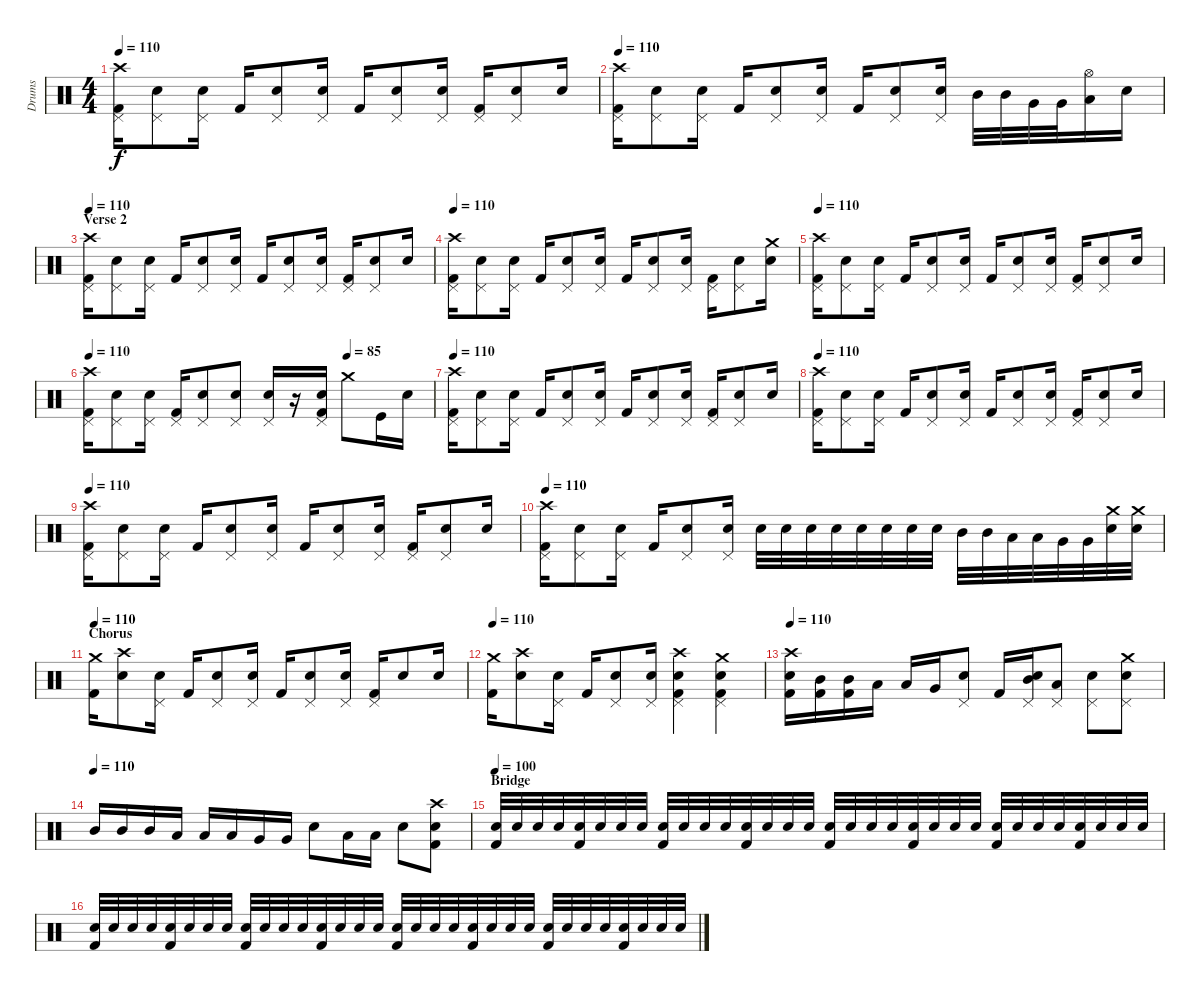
\track ("Drums" "Drums") {instrument percussion}
\staff {score}
\articulation defaults
\ts (4 4)
\tempo 110
\clef neutral
\ks c
("Crash high (hit)" "Kick (hit) 2" "Pedal Hi-Hat (hit)").16{dy f volume 13} ("Electric Snare (hit)" "Pedal Hi-Hat (hit)").8 ("Electric Snare (hit)" "Pedal Hi-Hat (hit)").16 "Kick (hit) 2".16 ("Electric Snare (hit)" "Pedal Hi-Hat (hit)").8 ("Electric Snare (hit)" "Pedal Hi-Hat (hit)").16 "Kick (hit) 2".16 ("Electric Snare (hit)" "Pedal Hi-Hat (hit)").8 ("Electric Snare (hit)" "Pedal Hi-Hat (hit)").16 ("Kick (hit) 2" "Pedal Hi-Hat (hit)").16 ("Electric Snare (hit)" "Pedal Hi-Hat (hit)").8 "Electric Snare (hit)".16 |
\tempo 110
("Crash high (hit)" "Kick (hit) 2" "Pedal Hi-Hat (hit)").16{volume 13} ("Electric Snare (hit)" "Pedal Hi-Hat (hit)").8 ("Electric Snare (hit)" "Pedal Hi-Hat (hit)").16 "Kick (hit) 2".16 ("Electric Snare (hit)" "Pedal Hi-Hat (hit)").8 ("Electric Snare (hit)" "Pedal Hi-Hat (hit)").16 "Kick (hit) 2".16 ("Electric Snare (hit)" "Pedal Hi-Hat (hit)").8 ("Electric Snare (hit)" "Pedal Hi-Hat (hit)").16 "Mid Tom (hit)".32 "Mid Tom (hit)".32 "Very Low Tom (hit)".32 "Very Low Tom (hit)".32 ("Low Tom (hit)" "Hi-Hat (open)").16 "Electric Snare (hit)".16 |
\section ("" "Verse 2")
\tempo 110
("Crash high (hit)" "Kick (hit) 2" "Pedal Hi-Hat (hit)").16{volume 13} ("Electric Snare (hit)" "Pedal Hi-Hat (hit)").8 ("Electric Snare (hit)" "Pedal Hi-Hat (hit)").16 "Kick (hit) 2".16 ("Electric Snare (hit)" "Pedal Hi-Hat (hit)").8 ("Electric Snare (hit)" "Pedal Hi-Hat (hit)").16 "Kick (hit) 2".16 ("Electric Snare (hit)" "Pedal Hi-Hat (hit)").8 ("Electric Snare (hit)" "Pedal Hi-Hat (hit)").16 ("Kick (hit) 2" "Pedal Hi-Hat (hit)").16 ("Electric Snare (hit)" "Pedal Hi-Hat (hit)").8 "Electric Snare (hit)".16 |
\tempo 110
("Crash high (hit)" "Kick (hit) 2" "Pedal Hi-Hat (hit)").16{volume 13} ("Electric Snare (hit)" "Pedal Hi-Hat (hit)").8 ("Electric Snare (hit)" "Pedal Hi-Hat (hit)").16 "Kick (hit) 2".16 ("Electric Snare (hit)" "Pedal Hi-Hat (hit)").8 ("Electric Snare (hit)" "Pedal Hi-Hat (hit)").16 "Kick (hit) 2".16 ("Electric Snare (hit)" "Pedal Hi-Hat (hit)").8 ("Electric Snare (hit)" "Pedal Hi-Hat (hit)").16 ("Kick (hit) 2" "Pedal Hi-Hat (hit)").16 ("Electric Snare (hit)" "Pedal Hi-Hat (hit)").8 ("Electric Snare (hit)" "Crash medium (hit)").16 |
\tempo 110
("Crash high (hit)" "Kick (hit) 2" "Pedal Hi-Hat (hit)").16{volume 13} ("Electric Snare (hit)" "Pedal Hi-Hat (hit)").8 ("Electric Snare (hit)" "Pedal Hi-Hat (hit)").16 "Kick (hit) 2".16 ("Electric Snare (hit)" "Pedal Hi-Hat (hit)").8 ("Electric Snare (hit)" "Pedal Hi-Hat (hit)").16 "Kick (hit) 2".16 ("Electric Snare (hit)" "Pedal Hi-Hat (hit)").8 ("Electric Snare (hit)" "Pedal Hi-Hat (hit)").16 ("Kick (hit) 2" "Pedal Hi-Hat (hit)").16 ("Electric Snare (hit)" "Pedal Hi-Hat (hit)").8 "Electric Snare (hit)".16 |
\tempo 110
\tempo (85 0.75)
("Crash high (hit)" "Kick (hit) 2" "Pedal Hi-Hat (hit)").16 ("Electric Snare (hit)" "Pedal Hi-Hat (hit)").8 ("Electric Snare (hit)" "Pedal Hi-Hat (hit)").16 ("Kick (hit) 2" "Pedal Hi-Hat (hit)").16 ("Electric Snare (hit)" "Pedal Hi-Hat (hit)").8 ("Electric Snare (hit)" "Pedal Hi-Hat (hit)").8 ("Electric Snare (hit)" "Pedal Hi-Hat (hit)").16 r.16 ("Electric Snare (hit)" "Kick (hit) 2" "Pedal Hi-Hat (hit)").16 "Crash medium (hit)".8 "Kick (hit)".16 "Electric Snare (hit)".16 |
\tempo 110
("Crash high (hit)" "Kick (hit) 2" "Pedal Hi-Hat (hit)").16{volume 13} ("Electric Snare (hit)" "Pedal Hi-Hat (hit)").8 ("Electric Snare (hit)" "Pedal Hi-Hat (hit)").16 "Kick (hit) 2".16 ("Electric Snare (hit)" "Pedal Hi-Hat (hit)").8 ("Electric Snare (hit)" "Pedal Hi-Hat (hit)").16 "Kick (hit) 2".16 ("Electric Snare (hit)" "Pedal Hi-Hat (hit)").8 ("Electric Snare (hit)" "Pedal Hi-Hat (hit)").16 ("Kick (hit) 2" "Pedal Hi-Hat (hit)").16 ("Electric Snare (hit)" "Pedal Hi-Hat (hit)").8 "Electric Snare (hit)".16 |
\tempo 110
("Crash high (hit)" "Kick (hit) 2" "Pedal Hi-Hat (hit)").16{volume 13} ("Electric Snare (hit)" "Pedal Hi-Hat (hit)").8 ("Electric Snare (hit)" "Pedal Hi-Hat (hit)").16 "Kick (hit) 2".16 ("Electric Snare (hit)" "Pedal Hi-Hat (hit)").8 ("Electric Snare (hit)" "Pedal Hi-Hat (hit)").16 "Kick (hit) 2".16 ("Electric Snare (hit)" "Pedal Hi-Hat (hit)").8 ("Electric Snare (hit)" "Pedal Hi-Hat (hit)").16 ("Kick (hit) 2" "Pedal Hi-Hat (hit)").16 ("Electric Snare (hit)" "Pedal Hi-Hat (hit)").8 "Electric Snare (hit)".16 |
\tempo 110
("Crash high (hit)" "Kick (hit) 2" "Pedal Hi-Hat (hit)").16{volume 13} ("Electric Snare (hit)" "Pedal Hi-Hat (hit)").8 ("Electric Snare (hit)" "Pedal Hi-Hat (hit)").16 "Kick (hit) 2".16 ("Electric Snare (hit)" "Pedal Hi-Hat (hit)").8 ("Electric Snare (hit)" "Pedal Hi-Hat (hit)").16 "Kick (hit) 2".16 ("Electric Snare (hit)" "Pedal Hi-Hat (hit)").8 ("Electric Snare (hit)" "Pedal Hi-Hat (hit)").16 ("Kick (hit) 2" "Pedal Hi-Hat (hit)").16 ("Electric Snare (hit)" "Pedal Hi-Hat (hit)").8 "Electric Snare (hit)".16 |
\tempo 110
("Crash high (hit)" "Kick (hit) 2" "Pedal Hi-Hat (hit)").16{volume 13} ("Electric Snare (hit)" "Pedal Hi-Hat (hit)").8 ("Electric Snare (hit)" "Pedal Hi-Hat (hit)").16 "Kick (hit) 2".16 ("Electric Snare (hit)" "Pedal Hi-Hat (hit)").8 ("Electric Snare (hit)" "Pedal Hi-Hat (hit)").16 "Electric Snare (hit)".32 "Electric Snare (hit)".32{volume 8} "Electric Snare (hit)".32 "Electric Snare (hit)".32 "Electric Snare (hit)".32{volume 13} "Electric Snare (hit)".32{volume 8} "Electric Snare (hit)".32 "Electric Snare (hit)".32 "Mid Tom (hit)".32{volume 13} "Mid Tom (hit)".32{volume 8} "Low Tom (hit)".32 "Low Tom (hit)".32 "Very Low Tom (hit)".32{volume 13} "Very Low Tom (hit)".32{volume 8} ("Crash medium (hit)" "Electric Snare (hit)").32 ("Crash medium (hit)" "Electric Snare (hit)").32 |
\section ("" "Chorus")
\tempo 110
("Kick (hit) 2" "Crash medium (hit)").16{volume 13} ("Electric Snare (hit)" "Crash high (hit)").8 ("Electric Snare (hit)" "Pedal Hi-Hat (hit)").16 "Kick (hit) 2".16 ("Electric Snare (hit)" "Pedal Hi-Hat (hit)").8 ("Electric Snare (hit)" "Pedal Hi-Hat (hit)").16 "Kick (hit) 2".16 ("Electric Snare (hit)" "Pedal Hi-Hat (hit)").8 ("Electric Snare (hit)" "Pedal Hi-Hat (hit)").16 ("Kick (hit) 2" "Pedal Hi-Hat (hit)").16 "Electric Snare (hit)".8 "Electric Snare (hit)".16 |
\tempo 110
("Kick (hit) 2" "Crash medium (hit)").16{volume 13} ("Electric Snare (hit)" "Crash high (hit)").8 ("Electric Snare (hit)" "Pedal Hi-Hat (hit)").16 "Kick (hit) 2".16 ("Electric Snare (hit)" "Pedal Hi-Hat (hit)").8 ("Electric Snare (hit)" "Pedal Hi-Hat (hit)").16 ("Electric Snare (hit)" "Kick (hit) 2" "Pedal Hi-Hat (hit)" "Crash high (hit)").4 ("Electric Snare (hit)" "Kick (hit) 2" "Pedal Hi-Hat (hit)" "Crash medium (hit)").4 |
\tempo 110
("Crash high (hit)" "Kick (hit) 2" "Electric Snare (hit)").16{volume 13} ("Mid Tom (hit)" "Kick (hit) 2").16 ("Mid Tom (hit)" "Kick (hit) 2").16 "Low Tom (hit)".16 "Low Tom (hit)".16 "Very Low Tom (hit)".16 ("Electric Snare (hit)" "Pedal Hi-Hat (hit)").8 "Kick (hit) 2".16 ("Electric Snare (hit)" "Mid Tom (hit)" "Pedal Hi-Hat (hit)").16 ("Low Tom (hit)" "Pedal Hi-Hat (hit)").8 ("Electric Snare (hit)" "Pedal Hi-Hat (hit)").8 ("Electric Snare (hit)" "Pedal Hi-Hat (hit)" "Crash medium (hit)").8 |
\tempo (110)
"Mid Tom (hit)".16{volume 13} "Mid Tom (hit)".16 "Mid Tom (hit)".16 "Low Tom (hit)".16 "Low Tom (hit)".16 "Low Tom (hit)".16 "Very Low Tom (hit)".16 "Very Low Tom (hit)".16 "Electric Snare (hit)".8 "Low Tom (hit)".16 "Low Tom (hit)".16 "Electric Snare (hit)".8 ("Crash high (hit)" "Kick (hit) 2" "Electric Snare (hit)").8 |
\section ("" "Bridge")
\tempo 100
("Electric Snare (hit)" "Kick (hit) 2").32 "Electric Snare (hit)".32{volume 8} "Electric Snare (hit)".32 "Electric Snare (hit)".32 ("Electric Snare (hit)" "Kick (hit) 2").32{volume 11} "Electric Snare (hit)".32{volume 8} "Electric Snare (hit)".32 "Electric Snare (hit)".32 ("Electric Snare (hit)" "Kick (hit) 2").32{volume 12} "Electric Snare (hit)".32{volume 8} "Electric Snare (hit)".32 "Electric Snare (hit)".32 ("Electric Snare (hit)" "Kick (hit) 2").32{volume 12} "Electric Snare (hit)".32{volume 8} "Electric Snare (hit)".32 "Electric Snare (hit)".32 ("Electric Snare (hit)" "Kick (hit) 2").32{volume 12} "Electric Snare (hit)".32{volume 8} "Electric Snare (hit)".32 "Electric Snare (hit)".32 ("Electric Snare (hit)" "Kick (hit) 2").32{volume 12} "Electric Snare (hit)".32{volume 8} "Electric Snare (hit)".32 "Electric Snare (hit)".32 ("Electric Snare (hit)" "Kick (hit) 2").32{volume 12} "Electric Snare (hit)".32{volume 8} "Electric Snare (hit)".32 "Electric Snare (hit)".32 ("Electric Snare (hit)" "Kick (hit) 2").32{volume 12} "Electric Snare (hit)".32{volume 8} "Electric Snare (hit)".32 "Electric Snare (hit)".32 |
("Electric Snare (hit)" "Kick (hit) 2").32{volume 11} "Electric Snare (hit)".32{volume 8} "Electric Snare (hit)".32 "Electric Snare (hit)".32 ("Electric Snare (hit)" "Kick (hit) 2").32{volume 11} "Electric Snare (hit)".32{volume 8} "Electric Snare (hit)".32 "Electric Snare (hit)".32 ("Electric Snare (hit)" "Kick (hit) 2").32{volume 12} "Electric Snare (hit)".32{volume 8} "Electric Snare (hit)".32 "Electric Snare (hit)".32 ("Electric Snare (hit)" "Kick (hit) 2").32{volume 12} "Electric Snare (hit)".32{volume 8} "Electric Snare (hit)".32 "Electric Snare (hit)".32 ("Electric Snare (hit)" "Kick (hit) 2").32{volume 12} "Electric Snare (hit)".32{volume 8} "Electric Snare (hit)".32 "Electric Snare (hit)".32 ("Electric Snare (hit)" "Kick (hit) 2").32{volume 12} "Electric Snare (hit)".32{volume 8} "Electric Snare (hit)".32 "Electric Snare (hit)".32 ("Electric Snare (hit)" "Kick (hit) 2").32{volume 12} "Electric Snare (hit)".32{volume 8} "Electric Snare (hit)".32 "Electric Snare (hit)".32 ("Electric Snare (hit)" "Kick (hit) 2").32{volume 12} "Electric Snare (hit)".32{volume 8} "Electric Snare (hit)".32 "Electric Snare (hit)".32
